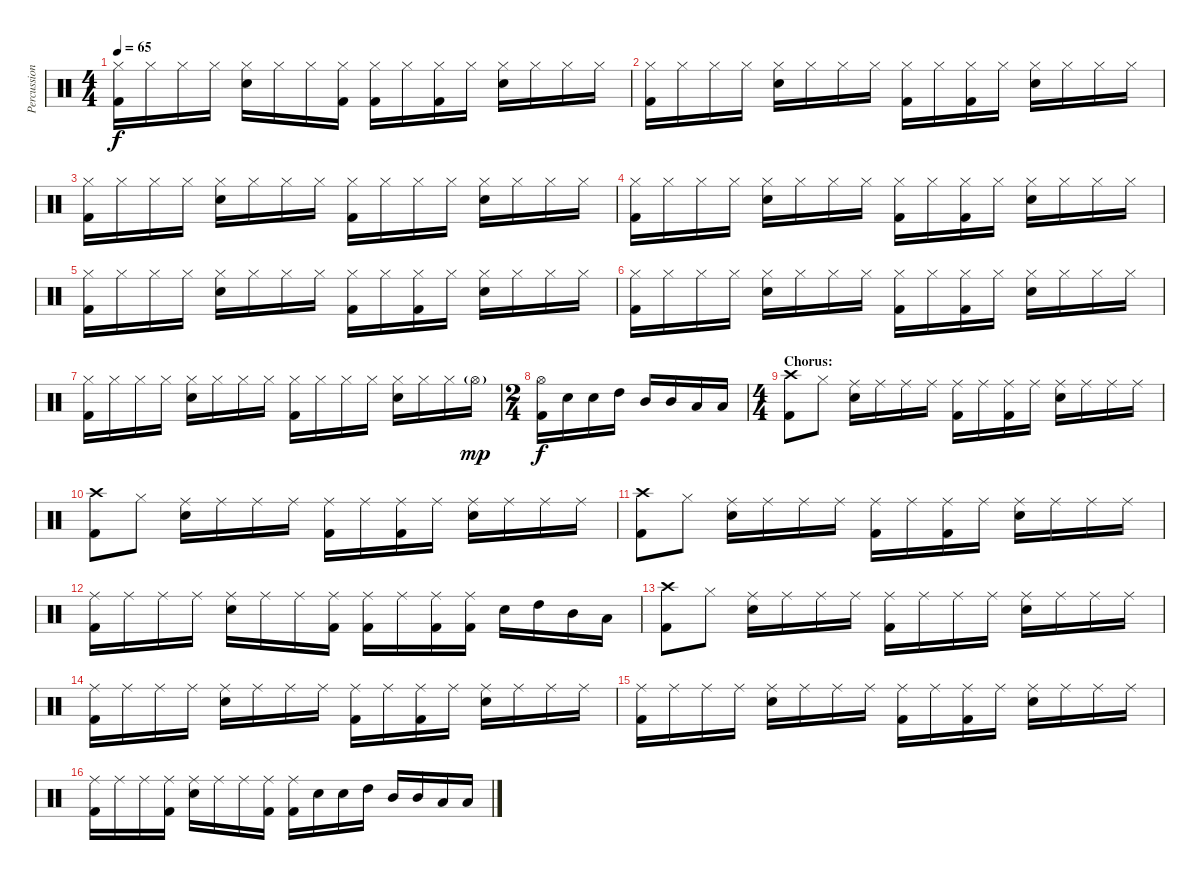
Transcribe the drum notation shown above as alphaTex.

\track ("Percussion" "Percussion") {instrument percussion}
\staff {score}
\articulation defaults
\ts (4 4)
\tempo 65
\clef neutral
\ks c
("Hi-Hat (closed)" "Kick (hit) 2").16{dy f} "Hi-Hat (closed)".16 "Hi-Hat (closed)".16 "Hi-Hat (closed)".16 ("Hi-Hat (closed)" "Electric Snare (hit)").16 "Hi-Hat (closed)".16 "Hi-Hat (closed)".16 ("Hi-Hat (closed)" "Kick (hit) 2").16 ("Hi-Hat (closed)" "Kick (hit) 2").16 "Hi-Hat (closed)".16 ("Hi-Hat (closed)" "Kick (hit) 2").16 "Hi-Hat (closed)".16 ("Hi-Hat (closed)" "Electric Snare (hit)").16 "Hi-Hat (closed)".16 "Hi-Hat (closed)".16 "Hi-Hat (closed)".16 |
("Hi-Hat (closed)" "Kick (hit) 2").16 "Hi-Hat (closed)".16 "Hi-Hat (closed)".16 "Hi-Hat (closed)".16 ("Hi-Hat (closed)" "Electric Snare (hit)").16 "Hi-Hat (closed)".16 "Hi-Hat (closed)".16 "Hi-Hat (closed)".16 ("Hi-Hat (closed)" "Kick (hit) 2").16 "Hi-Hat (closed)".16 ("Hi-Hat (closed)" "Kick (hit) 2").16 "Hi-Hat (closed)".16 ("Hi-Hat (closed)" "Electric Snare (hit)").16 "Hi-Hat (closed)".16 "Hi-Hat (closed)".16 "Hi-Hat (closed)".16 |
("Hi-Hat (closed)" "Kick (hit) 2").16 "Hi-Hat (closed)".16 "Hi-Hat (closed)".16 "Hi-Hat (closed)".16 ("Hi-Hat (closed)" "Electric Snare (hit)").16 "Hi-Hat (closed)".16 "Hi-Hat (closed)".16 "Hi-Hat (closed)".16 ("Hi-Hat (closed)" "Kick (hit) 2").16 "Hi-Hat (closed)".16 "Hi-Hat (closed)".16 "Hi-Hat (closed)".16 ("Hi-Hat (closed)" "Electric Snare (hit)").16 "Hi-Hat (closed)".16 "Hi-Hat (closed)".16 "Hi-Hat (closed)".16 |
("Hi-Hat (closed)" "Kick (hit) 2").16 "Hi-Hat (closed)".16 "Hi-Hat (closed)".16 "Hi-Hat (closed)".16 ("Hi-Hat (closed)" "Electric Snare (hit)").16 "Hi-Hat (closed)".16 "Hi-Hat (closed)".16 "Hi-Hat (closed)".16 ("Hi-Hat (closed)" "Kick (hit) 2").16 "Hi-Hat (closed)".16 ("Hi-Hat (closed)" "Kick (hit) 2").16 "Hi-Hat (closed)".16 ("Hi-Hat (closed)" "Electric Snare (hit)").16 "Hi-Hat (closed)".16 "Hi-Hat (closed)".16 "Hi-Hat (closed)".16 |
("Hi-Hat (closed)" "Kick (hit) 2").16 "Hi-Hat (closed)".16 "Hi-Hat (closed)".16 "Hi-Hat (closed)".16 ("Hi-Hat (closed)" "Electric Snare (hit)").16 "Hi-Hat (closed)".16 "Hi-Hat (closed)".16 "Hi-Hat (closed)".16 ("Hi-Hat (closed)" "Kick (hit) 2").16 "Hi-Hat (closed)".16 ("Hi-Hat (closed)" "Kick (hit) 2").16 "Hi-Hat (closed)".16 ("Hi-Hat (closed)" "Electric Snare (hit)").16 "Hi-Hat (closed)".16 "Hi-Hat (closed)".16 "Hi-Hat (closed)".16 |
("Hi-Hat (closed)" "Kick (hit) 2").16 "Hi-Hat (closed)".16 "Hi-Hat (closed)".16 "Hi-Hat (closed)".16 ("Hi-Hat (closed)" "Electric Snare (hit)").16 "Hi-Hat (closed)".16 "Hi-Hat (closed)".16 "Hi-Hat (closed)".16 ("Hi-Hat (closed)" "Kick (hit) 2").16 "Hi-Hat (closed)".16 ("Hi-Hat (closed)" "Kick (hit) 2").16 "Hi-Hat (closed)".16 ("Hi-Hat (closed)" "Electric Snare (hit)").16 "Hi-Hat (closed)".16 "Hi-Hat (closed)".16 "Hi-Hat (closed)".16 |
("Hi-Hat (closed)" "Kick (hit) 2").16 "Hi-Hat (closed)".16 "Hi-Hat (closed)".16 "Hi-Hat (closed)".16 ("Hi-Hat (closed)" "Electric Snare (hit)").16 "Hi-Hat (closed)".16 "Hi-Hat (closed)".16 "Hi-Hat (closed)".16 ("Hi-Hat (closed)" "Kick (hit) 2").16 "Hi-Hat (closed)".16 "Hi-Hat (closed)".16 "Hi-Hat (closed)".16 ("Hi-Hat (closed)" "Electric Snare (hit)").16 "Hi-Hat (closed)".16 "Hi-Hat (closed)".16 "Hi-Hat (open)"{g}.16{dy mp} |
\ts (2 4)
("Hi-Hat (open)" "Kick (hit) 2").16{dy f} "Electric Snare (hit)".16 "Electric Snare (hit)".16 "High Tom (hit)".16 "Mid Tom (hit)".16 "Mid Tom (hit)".16 "Low Tom (hit)".16 "Low Tom (hit)".16 |
\ts (4 4)
\section ("" "Chorus:")
("Crash high (hit)" "Kick (hit) 2").8 "Hi-Hat (closed)".8 ("Ride (middle)" "Electric Snare (hit)").16 "Ride (middle)".16 "Ride (middle)".16 "Ride (middle)".16 ("Ride (middle)" "Kick (hit) 2").16 "Ride (middle)".16 ("Ride (middle)" "Kick (hit) 2").16 "Ride (middle)".16 ("Ride (middle)" "Electric Snare (hit)").16 "Ride (middle)".16 "Ride (middle)".16 "Ride (middle)".16 |
("Crash high (hit)" "Kick (hit) 2").8 "Hi-Hat (closed)".8 ("Ride (middle)" "Electric Snare (hit)").16 "Ride (middle)".16 "Ride (middle)".16 "Ride (middle)".16 ("Ride (middle)" "Kick (hit) 2").16 "Ride (middle)".16 ("Ride (middle)" "Kick (hit) 2").16 "Ride (middle)".16 ("Ride (middle)" "Electric Snare (hit)").16 "Ride (middle)".16 "Ride (middle)".16 "Ride (middle)".16 |
("Crash high (hit)" "Kick (hit) 2").8 "Hi-Hat (closed)".8 ("Ride (middle)" "Electric Snare (hit)").16 "Ride (middle)".16 "Ride (middle)".16 "Ride (middle)".16 ("Ride (middle)" "Kick (hit) 2").16 "Ride (middle)".16 ("Ride (middle)" "Kick (hit) 2").16 "Ride (middle)".16 ("Ride (middle)" "Electric Snare (hit)").16 "Ride (middle)".16 "Ride (middle)".16 "Ride (middle)".16 |
("Ride (middle)" "Kick (hit) 2").16 "Ride (middle)".16 "Ride (middle)".16 "Ride (middle)".16 ("Ride (middle)" "Electric Snare (hit)").16 "Ride (middle)".16 "Ride (middle)".16 ("Ride (middle)" "Kick (hit) 2").16 ("Ride (middle)" "Kick (hit) 2").16 "Ride (middle)".16 ("Ride (middle)" "Kick (hit) 2").16 ("Ride (middle)" "Kick (hit) 2").16 "Electric Snare (hit)".16 "High Tom (hit)".16 "Mid Tom (hit)".16 "Low Tom (hit)".16 |
("Crash high (hit)" "Kick (hit) 2").8 "Hi-Hat (closed)".8 ("Ride (middle)" "Electric Snare (hit)").16 "Ride (middle)".16 "Ride (middle)".16 "Ride (middle)".16 ("Ride (middle)" "Kick (hit) 2").16 "Ride (middle)".16 "Ride (middle)".16 "Ride (middle)".16 ("Ride (middle)" "Electric Snare (hit)").16 "Ride (middle)".16 "Ride (middle)".16 "Ride (middle)".16 |
("Ride (middle)" "Kick (hit) 2").16 "Ride (middle)".16 "Ride (middle)".16 "Ride (middle)".16 ("Ride (middle)" "Electric Snare (hit)").16 "Ride (middle)".16 "Ride (middle)".16 "Ride (middle)".16 ("Ride (middle)" "Kick (hit) 2").16 "Ride (middle)".16 ("Ride (middle)" "Kick (hit) 2").16 "Ride (middle)".16 ("Ride (middle)" "Electric Snare (hit)").16 "Ride (middle)".16 "Ride (middle)".16 "Ride (middle)".16 |
("Ride (middle)" "Kick (hit) 2").16 "Ride (middle)".16 "Ride (middle)".16 "Ride (middle)".16 ("Ride (middle)" "Electric Snare (hit)").16 "Ride (middle)".16 "Ride (middle)".16 "Ride (middle)".16 ("Ride (middle)" "Kick (hit) 2").16 "Ride (middle)".16 ("Ride (middle)" "Kick (hit) 2").16 "Ride (middle)".16 ("Ride (middle)" "Electric Snare (hit)").16 "Ride (middle)".16 "Ride (middle)".16 "Ride (middle)".16 |
("Ride (middle)" "Kick (hit) 2").16 "Ride (middle)".16 "Ride (middle)".16 ("Ride (middle)" "Kick (hit) 2").16 ("Ride (middle)" "Electric Snare (hit)").16 "Ride (middle)".16 "Ride (middle)".16 ("Ride (middle)" "Kick (hit) 2").16 ("Ride (middle)" "Kick (hit) 2").16 "Electric Snare (hit)".16 "Electric Snare (hit)".16 "High Tom (hit)".16 "Mid Tom (hit)".16 "Mid Tom (hit)".16 "Low Tom (hit)".16 "Low Tom (hit)".16
